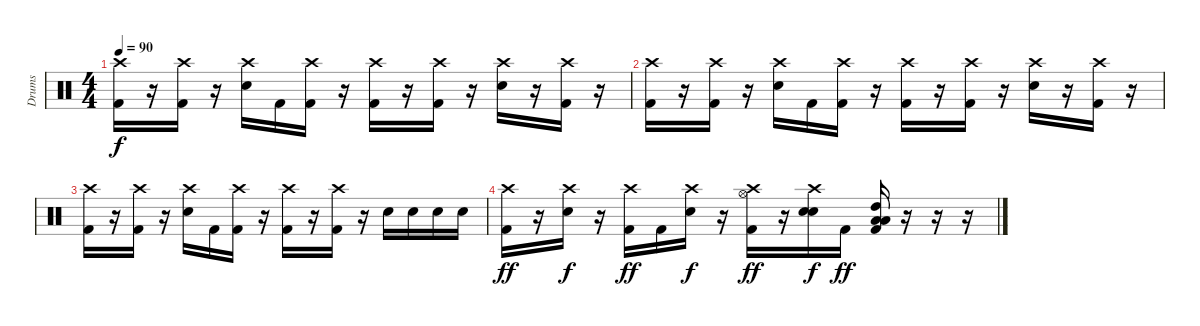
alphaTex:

\track ("Drums" "Drums") {instrument percussion}
\staff {score}
\articulation defaults
\ts (4 4)
\tempo 90
\clef neutral
\ks c
("Crash high (hit)" "Kick (hit) 2").16{dy f} r.16 ("Crash high (hit)" "Kick (hit) 2").16 r.16 ("Crash high (hit)" "Electric Snare (hit)").16 "Kick (hit) 2".16 ("Crash high (hit)" "Kick (hit) 2").16 r.16 ("Crash high (hit)" "Kick (hit) 2").16 r.16 ("Crash high (hit)" "Kick (hit) 2").16 r.16 ("Crash high (hit)" "Electric Snare (hit)").16 r.16 ("Crash high (hit)" "Kick (hit) 2").16 r.16 |
("Crash high (hit)" "Kick (hit) 2").16 r.16 ("Crash high (hit)" "Kick (hit) 2").16 r.16 ("Crash high (hit)" "Electric Snare (hit)").16 "Kick (hit) 2".16 ("Crash high (hit)" "Kick (hit) 2").16 r.16 ("Crash high (hit)" "Kick (hit) 2").16 r.16 ("Crash high (hit)" "Kick (hit) 2").16 r.16 ("Crash high (hit)" "Electric Snare (hit)").16 r.16 ("Crash high (hit)" "Kick (hit) 2").16 r.16 |
("Crash high (hit)" "Kick (hit) 2").16 r.16 ("Crash high (hit)" "Kick (hit) 2").16 r.16 ("Crash high (hit)" "Electric Snare (hit)").16 "Kick (hit) 2".16 ("Crash high (hit)" "Kick (hit) 2").16 r.16 ("Crash high (hit)" "Kick (hit) 2").16 r.16 ("Crash high (hit)" "Kick (hit) 2").16 r.16 "Electric Snare (hit)".16 "Electric Snare (hit)".16 "Electric Snare (hit)".16 "Electric Snare (hit)".16 |
("Crash high (hit)" "Kick (hit) 2").16{dy ff} r.16 ("Crash high (hit)" "Electric Snare (hit)").16{dy f} r.16 ("Crash high (hit)" "Kick (hit) 2").16{dy ff} "Kick (hit) 2".16 ("Crash high (hit)" "Electric Snare (hit)").16{dy f} r.16 ("Crash high (hit)" "Hi-Hat (open)" "Kick (hit) 2").16{dy ff} r.16 ("Crash high (hit)" "Electric Snare (hit)" "Electric Snare (hit)").16{dy f} "Kick (hit) 2".16{dy ff} ("Low Tom (hit)" "High Tom (hit)" "Low Tom (hit)" "Kick (hit) 2").16 r.16 r.16 r.16
